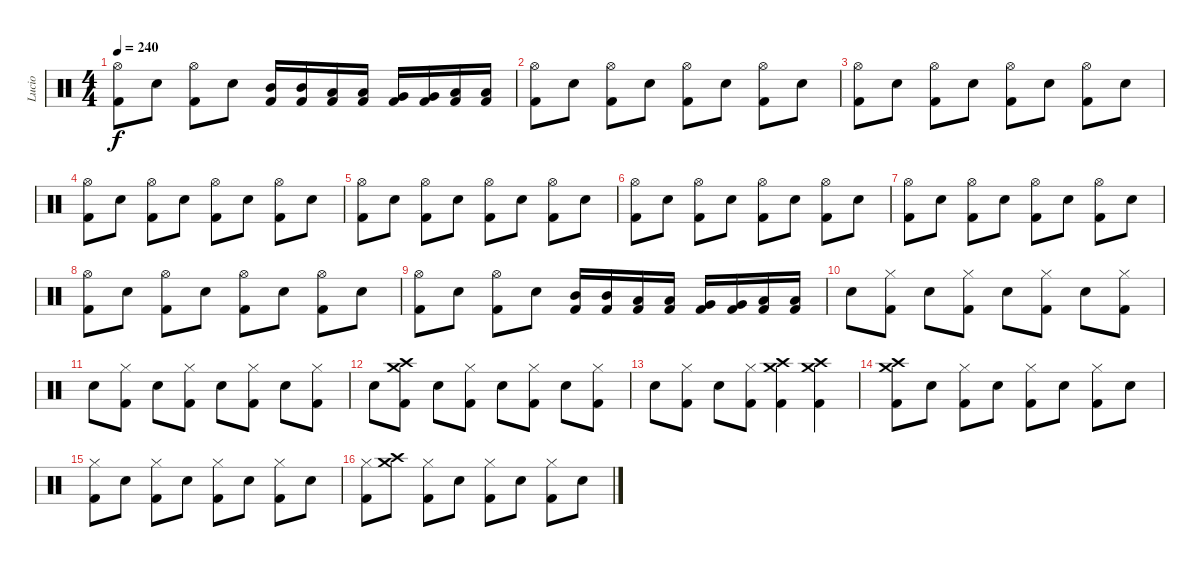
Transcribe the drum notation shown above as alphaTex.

\track ("Lucio" "Lucio") {instrument percussion}
\staff {score}
\articulation defaults
\ts (4 4)
\tempo 240
\clef neutral
\ks c
("Hi-Hat (open)" "Kick (hit) 2").8{dy f} "Electric Snare (hit)".8 ("Hi-Hat (open)" "Kick (hit) 2").8 "Electric Snare (hit)".8 ("Mid Tom (hit)" "Kick (hit) 2").16 ("Mid Tom (hit)" "Kick (hit) 2").16 ("Low Tom (hit)" "Kick (hit) 2").16 ("Low Tom (hit)" "Kick (hit) 2").16 ("Very Low Tom (hit)" "Kick (hit) 2").16 ("Very Low Tom (hit)" "Kick (hit) 2").16 ("Low Floor Tom (hit)" "Kick (hit) 2").16 ("Low Floor Tom (hit)" "Kick (hit) 2").16 |
("Hi-Hat (open)" "Kick (hit) 2").8 "Electric Snare (hit)".8 ("Hi-Hat (open)" "Kick (hit) 2").8 "Electric Snare (hit)".8 ("Hi-Hat (open)" "Kick (hit) 2").8 "Electric Snare (hit)".8 ("Hi-Hat (open)" "Kick (hit) 2").8 "Electric Snare (hit)".8 |
("Hi-Hat (open)" "Kick (hit) 2").8 "Electric Snare (hit)".8 ("Hi-Hat (open)" "Kick (hit) 2").8 "Electric Snare (hit)".8 ("Hi-Hat (open)" "Kick (hit) 2").8 "Electric Snare (hit)".8 ("Hi-Hat (open)" "Kick (hit) 2").8 "Electric Snare (hit)".8 |
("Hi-Hat (open)" "Kick (hit) 2").8 "Electric Snare (hit)".8 ("Hi-Hat (open)" "Kick (hit) 2").8 "Electric Snare (hit)".8 ("Hi-Hat (open)" "Kick (hit) 2").8 "Electric Snare (hit)".8 ("Hi-Hat (open)" "Kick (hit) 2").8 "Electric Snare (hit)".8 |
("Hi-Hat (open)" "Kick (hit) 2").8 "Electric Snare (hit)".8 ("Hi-Hat (open)" "Kick (hit) 2").8 "Electric Snare (hit)".8 ("Hi-Hat (open)" "Kick (hit) 2").8 "Electric Snare (hit)".8 ("Hi-Hat (open)" "Kick (hit) 2").8 "Electric Snare (hit)".8 |
("Hi-Hat (open)" "Kick (hit) 2").8 "Electric Snare (hit)".8 ("Hi-Hat (open)" "Kick (hit) 2").8 "Electric Snare (hit)".8 ("Hi-Hat (open)" "Kick (hit) 2").8 "Electric Snare (hit)".8 ("Hi-Hat (open)" "Kick (hit) 2").8 "Electric Snare (hit)".8 |
("Hi-Hat (open)" "Kick (hit) 2").8 "Electric Snare (hit)".8 ("Hi-Hat (open)" "Kick (hit) 2").8 "Electric Snare (hit)".8 ("Hi-Hat (open)" "Kick (hit) 2").8 "Electric Snare (hit)".8 ("Hi-Hat (open)" "Kick (hit) 2").8 "Electric Snare (hit)".8 |
("Hi-Hat (open)" "Kick (hit) 2").8 "Electric Snare (hit)".8 ("Hi-Hat (open)" "Kick (hit) 2").8 "Electric Snare (hit)".8 ("Hi-Hat (open)" "Kick (hit) 2").8 "Electric Snare (hit)".8 ("Hi-Hat (open)" "Kick (hit) 2").8 "Electric Snare (hit)".8 |
("Hi-Hat (open)" "Kick (hit) 2").8 "Electric Snare (hit)".8 ("Hi-Hat (open)" "Kick (hit) 2").8 "Electric Snare (hit)".8 ("Mid Tom (hit)" "Kick (hit) 2").16 ("Mid Tom (hit)" "Kick (hit) 2").16 ("Low Tom (hit)" "Kick (hit) 2").16 ("Low Tom (hit)" "Kick (hit) 2").16 ("Very Low Tom (hit)" "Kick (hit) 2").16 ("Very Low Tom (hit)" "Kick (hit) 2").16 ("Low Floor Tom (hit)" "Kick (hit) 2").16 ("Low Floor Tom (hit)" "Kick (hit) 2").16 |
"Electric Snare (hit)".8 ("Hi-Hat (closed)" "Kick (hit) 2").8 "Electric Snare (hit)".8 ("Hi-Hat (closed)" "Kick (hit) 2").8 "Electric Snare (hit)".8 ("Hi-Hat (closed)" "Kick (hit) 2").8 "Electric Snare (hit)".8 ("Hi-Hat (closed)" "Kick (hit) 2").8 |
"Electric Snare (hit)".8 ("Hi-Hat (closed)" "Kick (hit) 2").8 "Electric Snare (hit)".8 ("Hi-Hat (closed)" "Kick (hit) 2").8 "Electric Snare (hit)".8 ("Hi-Hat (closed)" "Kick (hit) 2").8 "Electric Snare (hit)".8 ("Hi-Hat (closed)" "Kick (hit) 2").8 |
"Electric Snare (hit)".8 ("Crash medium (hit)" "Crash high (hit)" "Kick (hit) 2").8 "Electric Snare (hit)".8 ("Hi-Hat (closed)" "Kick (hit) 2").8 "Electric Snare (hit)".8 ("Hi-Hat (closed)" "Kick (hit) 2").8 "Electric Snare (hit)".8 ("Hi-Hat (closed)" "Kick (hit) 2").8 |
"Electric Snare (hit)".8 ("Hi-Hat (closed)" "Kick (hit) 2").8 "Electric Snare (hit)".8 ("Hi-Hat (closed)" "Kick (hit) 2").8 ("Crash medium (hit)" "Crash high (hit)" "Kick (hit) 2").4 ("Crash medium (hit)" "Crash high (hit)" "Kick (hit) 2").4 |
("Crash medium (hit)" "Crash high (hit)" "Kick (hit) 2").8 "Electric Snare (hit)".8 ("Hi-Hat (closed)" "Kick (hit) 2").8 "Electric Snare (hit)".8 ("Hi-Hat (closed)" "Kick (hit) 2").8 "Electric Snare (hit)".8 ("Hi-Hat (closed)" "Kick (hit) 2").8 "Electric Snare (hit)".8 |
("Hi-Hat (closed)" "Kick (hit) 2").8 "Electric Snare (hit)".8 ("Hi-Hat (closed)" "Kick (hit) 2").8 "Electric Snare (hit)".8 ("Hi-Hat (closed)" "Kick (hit) 2").8 "Electric Snare (hit)".8 ("Hi-Hat (closed)" "Kick (hit) 2").8 "Electric Snare (hit)".8 |
("Hi-Hat (closed)" "Kick (hit) 2").8 ("Crash medium (hit)" "Crash high (hit)").8 ("Hi-Hat (closed)" "Kick (hit) 2").8 "Electric Snare (hit)".8 ("Hi-Hat (closed)" "Kick (hit) 2").8 "Electric Snare (hit)".8 ("Hi-Hat (closed)" "Kick (hit) 2").8 "Electric Snare (hit)".8
